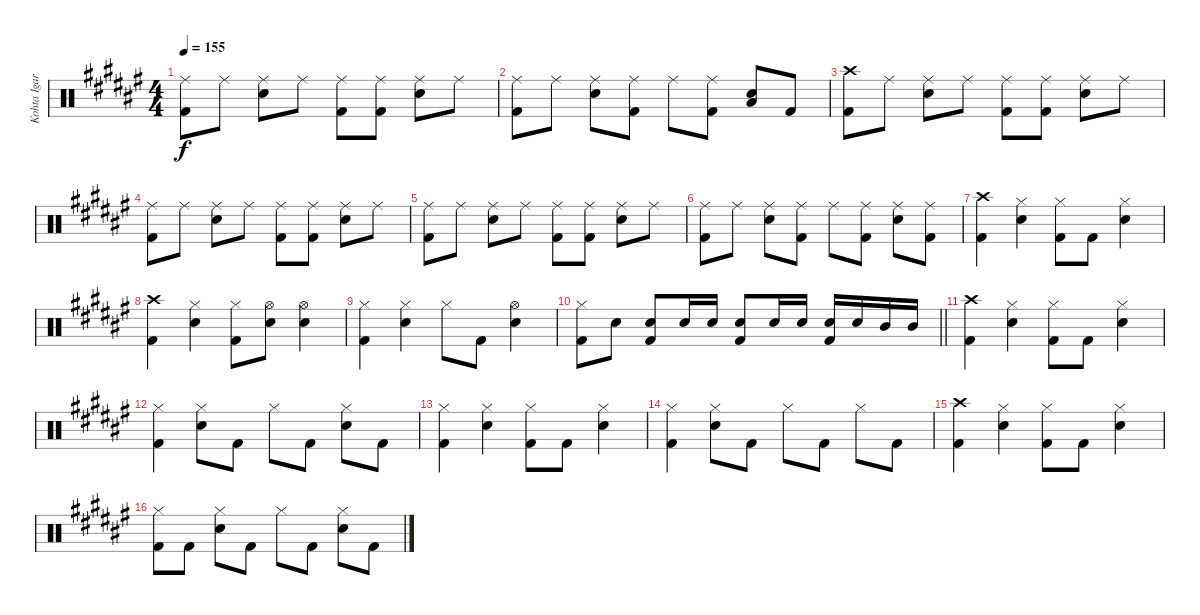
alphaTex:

\track ("Kohta Igarashi" "Kohta Igar") {instrument percussion}
\staff {score}
\articulation defaults
\ts (4 4)
\tempo 155
\clef neutral
\ks f#
("Ride (middle)" "Kick (hit) 2").8{dy f} "Ride (middle)".8 ("Ride (middle)" "Electric Snare (hit)").8 "Ride (middle)".8 ("Ride (middle)" "Kick (hit) 2").8 ("Ride (middle)" "Kick (hit) 2").8 ("Ride (middle)" "Electric Snare (hit)").8 "Ride (middle)".8 |
("Ride (middle)" "Kick (hit) 2").8 "Ride (middle)".8 ("Ride (middle)" "Electric Snare (hit)").8 ("Ride (middle)" "Kick (hit) 2").8 "Ride (middle)".8 ("Ride (middle)" "Kick (hit) 2").8 ("Low Floor Tom (hit)" "Electric Snare (hit)").8 "Kick (hit) 2".8 |
("Crash high (hit)" "Kick (hit) 2").8 "Ride (middle)".8 ("Ride (middle)" "Electric Snare (hit)").8 "Ride (middle)".8 ("Ride (middle)" "Kick (hit) 2").8 ("Ride (middle)" "Kick (hit) 2").8 ("Ride (middle)" "Electric Snare (hit)").8 "Ride (middle)".8 |
("Ride (middle)" "Kick (hit) 2").8 "Ride (middle)".8 ("Ride (middle)" "Electric Snare (hit)").8 "Ride (middle)".8 ("Ride (middle)" "Kick (hit) 2").8 ("Ride (middle)" "Kick (hit) 2").8 ("Ride (middle)" "Electric Snare (hit)").8 "Ride (middle)".8 |
("Ride (middle)" "Kick (hit) 2").8 "Ride (middle)".8 ("Ride (middle)" "Electric Snare (hit)").8 "Ride (middle)".8 ("Ride (middle)" "Kick (hit) 2").8 ("Ride (middle)" "Kick (hit) 2").8 ("Ride (middle)" "Electric Snare (hit)").8 "Ride (middle)".8 |
("Ride (middle)" "Kick (hit) 2").8 "Ride (middle)".8 ("Ride (middle)" "Electric Snare (hit)").8 ("Ride (middle)" "Kick (hit) 2").8 "Ride (middle)".8 ("Ride (middle)" "Kick (hit) 2").8 ("Ride (middle)" "Electric Snare (hit)").8 ("Ride (middle)" "Kick (hit) 2").8 |
("Crash high (hit)" "Kick (hit) 2").4 ("Hi-Hat (closed)" "Electric Snare (hit)").4 ("Hi-Hat (closed)" "Kick (hit) 2").8 "Kick (hit) 2".8 ("Hi-Hat (closed)" "Electric Snare (hit)").4 |
("Crash high (hit)" "Kick (hit) 2").4 ("Hi-Hat (closed)" "Electric Snare (hit)").4 ("Hi-Hat (closed)" "Kick (hit) 2").8 ("Hi-Hat (open)" "Electric Snare (hit)").8 ("Hi-Hat (open)" "Electric Snare (hit)").4 |
("Hi-Hat (closed)" "Kick (hit) 2").4 ("Hi-Hat (closed)" "Electric Snare (hit)").4 "Hi-Hat (closed)".8 "Kick (hit) 2".8 ("Hi-Hat (open)" "Electric Snare (hit)").4 |
\barLineRight lightlight
("Hi-Hat (closed)" "Kick (hit) 2").8 "Electric Snare (hit)".8 ("Electric Snare (hit)" "Kick (hit) 2").8 "Electric Snare (hit)".16 "Electric Snare (hit)".16 ("Electric Snare (hit)" "Kick (hit) 2").8 "Electric Snare (hit)".16 "Electric Snare (hit)".16 ("Electric Snare (hit)" "Kick (hit) 2").16 "Electric Snare (hit)".16 "Mid Tom (hit)".16 "Mid Tom (hit)".16 |
("Crash high (hit)" "Kick (hit) 2").4 ("Hi-Hat (closed)" "Electric Snare (hit)").4 ("Hi-Hat (closed)" "Kick (hit) 2").8 "Kick (hit) 2".8 ("Hi-Hat (closed)" "Electric Snare (hit)").4 |
("Hi-Hat (closed)" "Kick (hit) 2").4 ("Hi-Hat (closed)" "Electric Snare (hit)").8 "Kick (hit) 2".8 "Hi-Hat (closed)".8 "Kick (hit) 2".8 ("Hi-Hat (closed)" "Electric Snare (hit)").8 "Kick (hit) 2".8 |
("Hi-Hat (closed)" "Kick (hit) 2").4 ("Hi-Hat (closed)" "Electric Snare (hit)").4 ("Hi-Hat (closed)" "Kick (hit) 2").8 "Kick (hit) 2".8 ("Hi-Hat (closed)" "Electric Snare (hit)").4 |
("Hi-Hat (closed)" "Kick (hit) 2").4 ("Hi-Hat (closed)" "Electric Snare (hit)").8 "Kick (hit) 2".8 "Hi-Hat (closed)".8 "Kick (hit) 2".8 "Hi-Hat (closed)".8 "Kick (hit) 2".8 |
("Crash high (hit)" "Kick (hit) 2").4 ("Hi-Hat (closed)" "Electric Snare (hit)").4 ("Hi-Hat (closed)" "Kick (hit) 2").8 "Kick (hit) 2".8 ("Hi-Hat (closed)" "Electric Snare (hit)").4 |
("Hi-Hat (closed)" "Kick (hit) 2").8 "Kick (hit) 2".8 ("Hi-Hat (closed)" "Electric Snare (hit)").8 "Kick (hit) 2".8 "Hi-Hat (closed)".8 "Kick (hit) 2".8 ("Hi-Hat (closed)" "Electric Snare (hit)").8 "Kick (hit) 2".8
